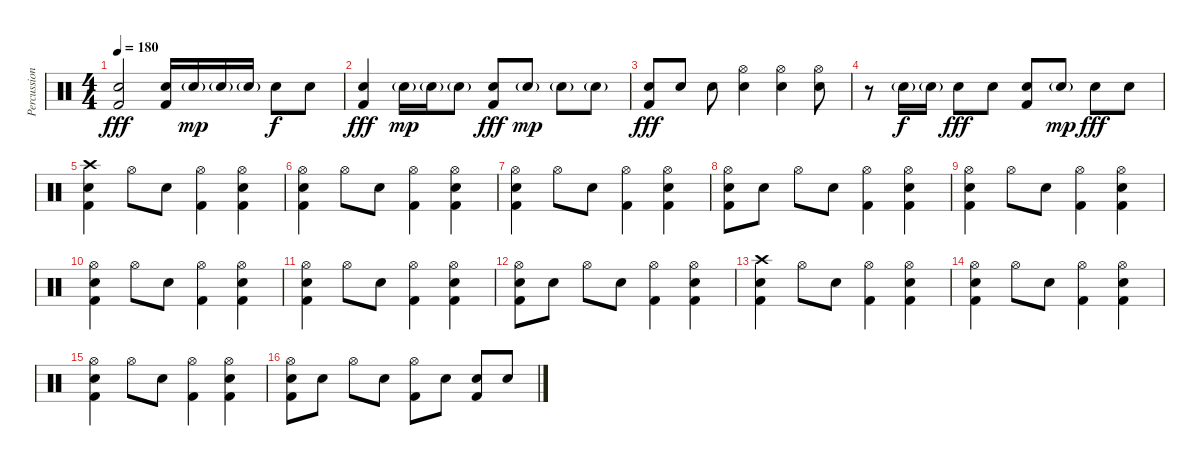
\track ("Percussion" "Percussion") {instrument percussion}
\staff {score}
\articulation defaults
\ts (4 4)
\tempo 180
\clef neutral
\ks c
("Kick (hit) 2" "Electric Snare (hit)").2{dy fff} ("Kick (hit) 2" "Electric Snare (hit)").16 "Electric Snare (hit)"{g}.16{dy mp} "Electric Snare (hit)"{g}.16 "Electric Snare (hit)"{g}.16 "Electric Snare (hit)".8{dy f} "Electric Snare (hit)".8 |
("Kick (hit) 2" "Electric Snare (hit)").4{dy fff} "Electric Snare (hit)"{g}.16{dy mp} "Electric Snare (hit)"{g}.16 "Electric Snare (hit)"{g}.8 ("Kick (hit) 2" "Electric Snare (hit)").8{dy fff} "Electric Snare (hit)"{g}.8{dy mp} "Electric Snare (hit)"{g}.8 "Electric Snare (hit)"{g}.8 |
("Kick (hit) 2" "Electric Snare (hit)").8{dy fff} "Electric Snare (hit)".8 "Electric Snare (hit)".8 ("Hi-Hat (open)" "Electric Snare (hit)").4 ("Hi-Hat (open)" "Electric Snare (hit)").4 ("Hi-Hat (open)" "Electric Snare (hit)").8 |
r.8 "Electric Snare (hit)"{g}.16{dy f} "Electric Snare (hit)"{g}.16 "Electric Snare (hit)".8{dy fff} "Electric Snare (hit)".8 ("Kick (hit) 2" "Electric Snare (hit)").8 "Electric Snare (hit)"{g}.8{dy mp} "Electric Snare (hit)".8{dy fff} "Electric Snare (hit)".8 |
("Crash high (hit)" "Kick (hit) 2" "Electric Snare (hit)").4 "Hi-Hat (open)".8 "Electric Snare (hit)".8 ("Hi-Hat (open)" "Kick (hit) 2").4 ("Hi-Hat (open)" "Kick (hit) 2" "Electric Snare (hit)").4 |
("Hi-Hat (open)" "Kick (hit) 2" "Electric Snare (hit)").4 "Hi-Hat (open)".8 "Electric Snare (hit)".8 ("Hi-Hat (open)" "Kick (hit) 2").4 ("Hi-Hat (open)" "Kick (hit) 2" "Electric Snare (hit)").4 |
("Hi-Hat (open)" "Kick (hit) 2" "Electric Snare (hit)").4 "Hi-Hat (open)".8 "Electric Snare (hit)".8 ("Hi-Hat (open)" "Kick (hit) 2").4 ("Hi-Hat (open)" "Kick (hit) 2" "Electric Snare (hit)").4 |
("Hi-Hat (open)" "Kick (hit) 2" "Electric Snare (hit)").8 "Electric Snare (hit)".8 "Hi-Hat (open)".8 "Electric Snare (hit)".8 ("Hi-Hat (open)" "Kick (hit) 2").4 ("Hi-Hat (open)" "Kick (hit) 2" "Electric Snare (hit)").4 |
("Hi-Hat (open)" "Kick (hit) 2" "Electric Snare (hit)").4 "Hi-Hat (open)".8 "Electric Snare (hit)".8 ("Hi-Hat (open)" "Kick (hit) 2").4 ("Hi-Hat (open)" "Kick (hit) 2" "Electric Snare (hit)").4 |
("Hi-Hat (open)" "Kick (hit) 2" "Electric Snare (hit)").4 "Hi-Hat (open)".8 "Electric Snare (hit)".8 ("Hi-Hat (open)" "Kick (hit) 2").4 ("Hi-Hat (open)" "Kick (hit) 2" "Electric Snare (hit)").4 |
("Hi-Hat (open)" "Kick (hit) 2" "Electric Snare (hit)").4 "Hi-Hat (open)".8 "Electric Snare (hit)".8 ("Hi-Hat (open)" "Kick (hit) 2").4 ("Hi-Hat (open)" "Kick (hit) 2" "Electric Snare (hit)").4 |
("Hi-Hat (open)" "Kick (hit) 2" "Electric Snare (hit)").8 "Electric Snare (hit)".8 "Hi-Hat (open)".8 "Electric Snare (hit)".8 ("Hi-Hat (open)" "Kick (hit) 2").4 ("Hi-Hat (open)" "Kick (hit) 2" "Electric Snare (hit)").4 |
("Crash high (hit)" "Kick (hit) 2" "Electric Snare (hit)").4 "Hi-Hat (open)".8 "Electric Snare (hit)".8 ("Hi-Hat (open)" "Kick (hit) 2").4 ("Hi-Hat (open)" "Kick (hit) 2" "Electric Snare (hit)").4 |
("Hi-Hat (open)" "Kick (hit) 2" "Electric Snare (hit)").4 "Hi-Hat (open)".8 "Electric Snare (hit)".8 ("Hi-Hat (open)" "Kick (hit) 2").4 ("Hi-Hat (open)" "Kick (hit) 2" "Electric Snare (hit)").4 |
("Hi-Hat (open)" "Kick (hit) 2" "Electric Snare (hit)").4 "Hi-Hat (open)".8 "Electric Snare (hit)".8 ("Hi-Hat (open)" "Kick (hit) 2").4 ("Hi-Hat (open)" "Kick (hit) 2" "Electric Snare (hit)").4 |
("Hi-Hat (open)" "Kick (hit) 2" "Electric Snare (hit)").8 "Electric Snare (hit)".8 "Hi-Hat (open)".8 "Electric Snare (hit)".8 ("Hi-Hat (open)" "Kick (hit) 2").8 "Electric Snare (hit)".8 ("Kick (hit) 2" "Electric Snare (hit)").8 "Electric Snare (hit)".8
